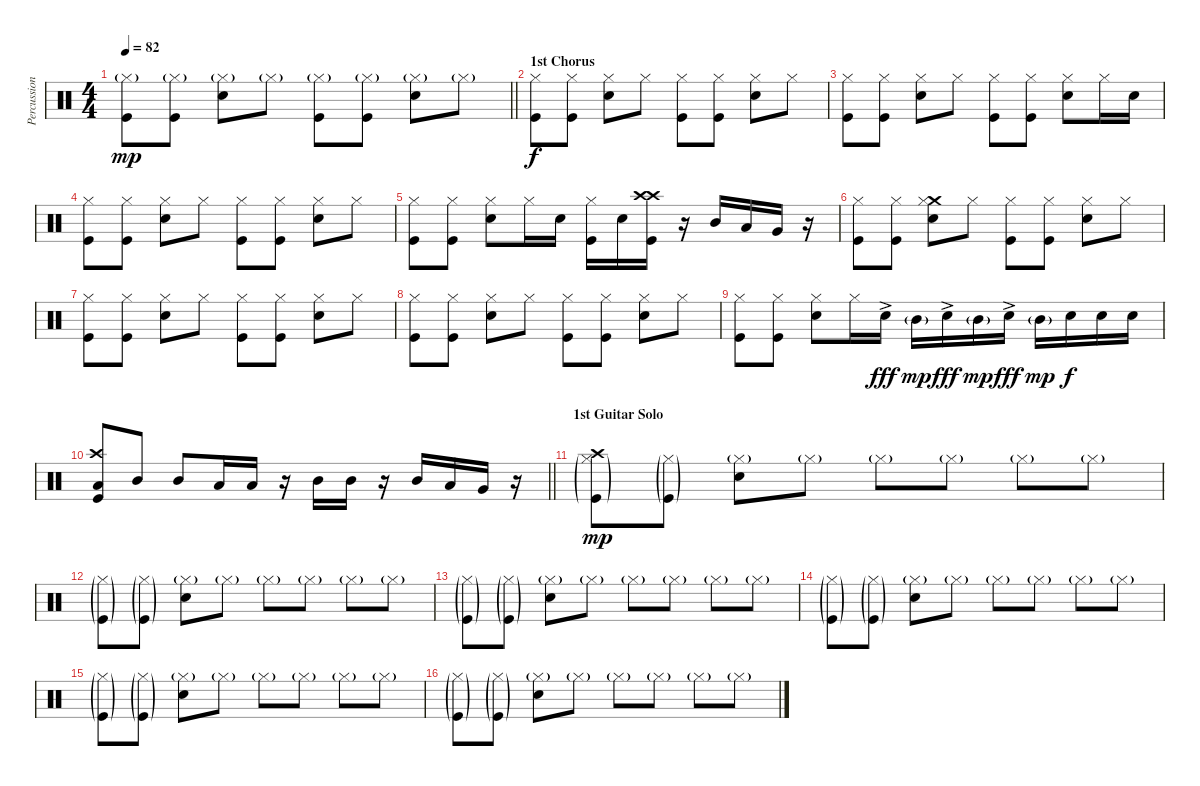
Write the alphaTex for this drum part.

\track ("Percussion" "Percussion") {instrument percussion}
\staff {score}
\articulation defaults
\ts (4 4)
\tempo 82
\clef neutral
\barLineRight lightlight
\ks c
("Hi-Hat (closed)"{g} "Kick (hit)").8{dy mp} ("Hi-Hat (closed)"{g} "Kick (hit)").8 ("Hi-Hat (closed)"{g} "Electric Snare (hit)").8 "Hi-Hat (closed)"{g}.8 ("Hi-Hat (closed)"{g} "Kick (hit)").8 ("Hi-Hat (closed)"{g} "Kick (hit)").8 ("Hi-Hat (closed)"{g} "Electric Snare (hit)").8 "Hi-Hat (closed)"{g}.8 |
\section ("" "1st Chorus")
("Hi-Hat (closed)" "Kick (hit)").8{dy f} ("Hi-Hat (closed)" "Kick (hit)").8 ("Hi-Hat (closed)" "Electric Snare (hit)").8 "Hi-Hat (closed)".8 ("Hi-Hat (closed)" "Kick (hit)").8 ("Hi-Hat (closed)" "Kick (hit)").8 ("Hi-Hat (closed)" "Electric Snare (hit)").8 "Hi-Hat (closed)".8 |
("Hi-Hat (closed)" "Kick (hit)").8 ("Hi-Hat (closed)" "Kick (hit)").8 ("Hi-Hat (closed)" "Electric Snare (hit)").8 "Hi-Hat (closed)".8 ("Hi-Hat (closed)" "Kick (hit)").8 ("Hi-Hat (closed)" "Kick (hit)").8 ("Hi-Hat (closed)" "Electric Snare (hit)").8 "Hi-Hat (closed)".16 "Electric Snare (hit)".16 |
("Hi-Hat (closed)" "Kick (hit)").8 ("Hi-Hat (closed)" "Kick (hit)").8 ("Hi-Hat (closed)" "Electric Snare (hit)").8 "Hi-Hat (closed)".8 ("Hi-Hat (closed)" "Kick (hit)").8 ("Hi-Hat (closed)" "Kick (hit)").8 ("Hi-Hat (closed)" "Electric Snare (hit)").8 "Hi-Hat (closed)".8 |
("Hi-Hat (closed)" "Kick (hit)").8 ("Hi-Hat (closed)" "Kick (hit)").8 ("Hi-Hat (closed)" "Electric Snare (hit)").8 "Hi-Hat (closed)".16 "Electric Snare (hit)".16 ("Hi-Hat (closed)" "Kick (hit)").16 "Electric Snare (hit)".16 ("Crash high (hit)" "Crash high (hit)" "Kick (hit)").16 r.16 "Mid Tom (hit)".16 "Low Tom (hit)".16 "Very Low Tom (hit)".16 r.16 |
("Hi-Hat (closed)" "Kick (hit)").8 ("Hi-Hat (closed)" "Kick (hit)").8 ("Crash medium (hit)" "Hi-Hat (closed)" "Electric Snare (hit)").8 "Hi-Hat (closed)".8 ("Hi-Hat (closed)" "Kick (hit)").8 ("Hi-Hat (closed)" "Kick (hit)").8 ("Hi-Hat (closed)" "Electric Snare (hit)").8 "Hi-Hat (closed)".8 |
("Hi-Hat (closed)" "Kick (hit)").8 ("Hi-Hat (closed)" "Kick (hit)").8 ("Hi-Hat (closed)" "Electric Snare (hit)").8 "Hi-Hat (closed)".8 ("Hi-Hat (closed)" "Kick (hit)").8 ("Hi-Hat (closed)" "Kick (hit)").8 ("Hi-Hat (closed)" "Electric Snare (hit)").8 "Hi-Hat (closed)".8 |
("Hi-Hat (closed)" "Kick (hit)").8 ("Hi-Hat (closed)" "Kick (hit)").8 ("Hi-Hat (closed)" "Electric Snare (hit)").8 "Hi-Hat (closed)".8 ("Hi-Hat (closed)" "Kick (hit)").8 ("Hi-Hat (closed)" "Kick (hit)").8 ("Hi-Hat (closed)" "Electric Snare (hit)").8 "Hi-Hat (closed)".8 |
("Hi-Hat (closed)" "Kick (hit)").8 ("Hi-Hat (closed)" "Kick (hit)").8 ("Hi-Hat (closed)" "Electric Snare (hit)").8 "Hi-Hat (closed)".16 "Electric Snare (hit)"{ac}.16{dy fff} "Mid Tom (hit)"{g}.16{dy mp} "Electric Snare (hit)"{ac}.16{dy fff} "Mid Tom (hit)"{g}.16{dy mp} "Electric Snare (hit)"{ac}.16{dy fff} "Mid Tom (hit)"{g}.16{dy mp} "Electric Snare (hit)".16{dy f} "Electric Snare (hit)".16 "Electric Snare (hit)".16 |
\barLineRight lightlight
("Crash high (hit)" "Low Tom (hit)" "Kick (hit)").8 "Mid Tom (hit)".8 "Mid Tom (hit)".8 "Low Tom (hit)".16 "Low Tom (hit)".16 r.16 "Mid Tom (hit)".16 "Mid Tom (hit)".16 r.16 "Mid Tom (hit)".16 "Low Tom (hit)".16 "Very Low Tom (hit)".16 r.16 |
\section ("" "1st Guitar Solo")
("Crash high (hit)" "Hi-Hat (closed)"{g} "Kick (hit)"{g}).8{dy mp} ("Hi-Hat (closed)"{g} "Kick (hit)"{g}).8 ("Hi-Hat (closed)"{g} "Electric Snare (hit)").8 "Hi-Hat (closed)"{g}.8 "Hi-Hat (closed)"{g}.8 "Hi-Hat (closed)"{g}.8 "Hi-Hat (closed)"{g}.8 "Hi-Hat (closed)"{g}.8 |
("Hi-Hat (closed)"{g} "Kick (hit)"{g}).8 ("Hi-Hat (closed)"{g} "Kick (hit)"{g}).8 ("Hi-Hat (closed)"{g} "Electric Snare (hit)").8 "Hi-Hat (closed)"{g}.8 "Hi-Hat (closed)"{g}.8 "Hi-Hat (closed)"{g}.8 "Hi-Hat (closed)"{g}.8 "Hi-Hat (closed)"{g}.8 |
("Hi-Hat (closed)"{g} "Kick (hit)"{g}).8 ("Hi-Hat (closed)"{g} "Kick (hit)"{g}).8 ("Hi-Hat (closed)"{g} "Electric Snare (hit)").8 "Hi-Hat (closed)"{g}.8 "Hi-Hat (closed)"{g}.8 "Hi-Hat (closed)"{g}.8 "Hi-Hat (closed)"{g}.8 "Hi-Hat (closed)"{g}.8 |
("Hi-Hat (closed)"{g} "Kick (hit)"{g}).8 ("Hi-Hat (closed)"{g} "Kick (hit)"{g}).8 ("Hi-Hat (closed)"{g} "Electric Snare (hit)").8 "Hi-Hat (closed)"{g}.8 "Hi-Hat (closed)"{g}.8 "Hi-Hat (closed)"{g}.8 "Hi-Hat (closed)"{g}.8 "Hi-Hat (closed)"{g}.8 |
("Hi-Hat (closed)"{g} "Kick (hit)"{g}).8 ("Hi-Hat (closed)"{g} "Kick (hit)"{g}).8 ("Hi-Hat (closed)"{g} "Electric Snare (hit)").8 "Hi-Hat (closed)"{g}.8 "Hi-Hat (closed)"{g}.8 "Hi-Hat (closed)"{g}.8 "Hi-Hat (closed)"{g}.8 "Hi-Hat (closed)"{g}.8 |
("Hi-Hat (closed)"{g} "Kick (hit)"{g}).8 ("Hi-Hat (closed)"{g} "Kick (hit)"{g}).8 ("Hi-Hat (closed)"{g} "Electric Snare (hit)").8 "Hi-Hat (closed)"{g}.8 "Hi-Hat (closed)"{g}.8 "Hi-Hat (closed)"{g}.8 "Hi-Hat (closed)"{g}.8 "Hi-Hat (closed)"{g}.8
